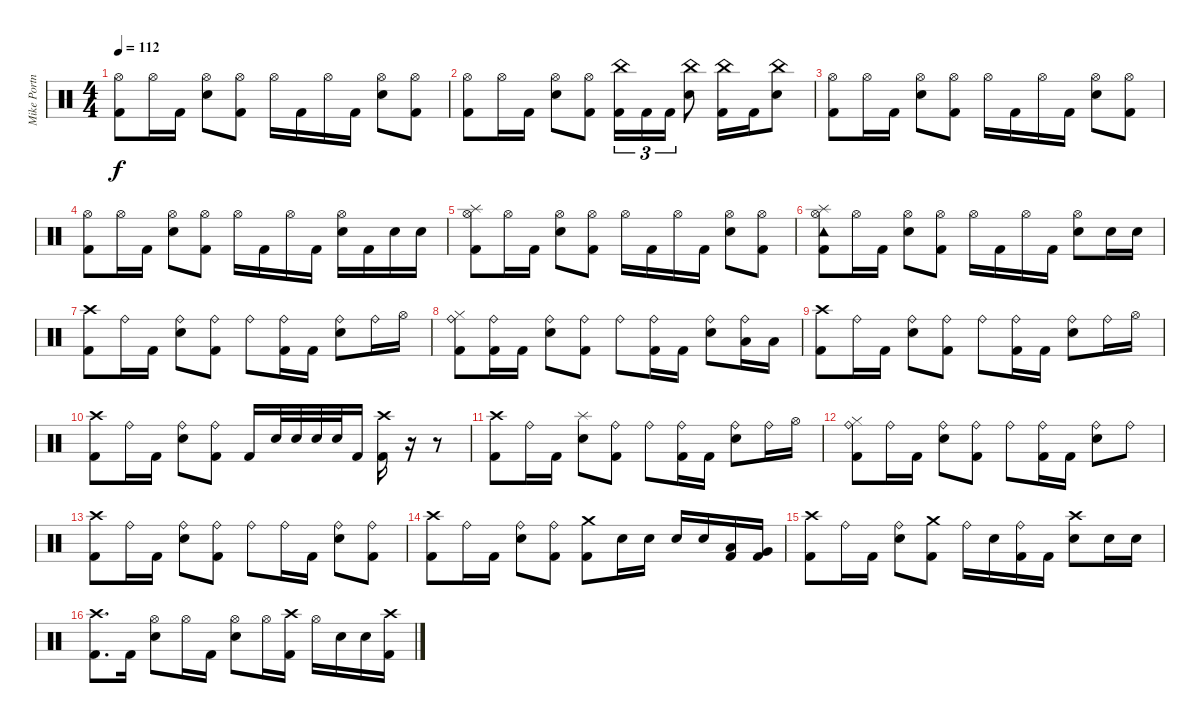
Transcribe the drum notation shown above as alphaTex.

\track ("Mike Portnoy" "Mike Portn") {instrument percussion}
\staff {score}
\articulation defaults
\ts (4 4)
\tempo 112
\clef neutral
\ks c
("Kick (hit) 2" "Hi-Hat (open)").8{dy f} "Hi-Hat (open)".16 "Kick (hit) 2".16 ("Electric Snare (hit)" "Hi-Hat (open)").8 ("Kick (hit) 2" "Hi-Hat (open)").8 "Hi-Hat (open)".16 "Kick (hit) 2".16 "Hi-Hat (open)".16 "Kick (hit) 2".16 ("Electric Snare (hit)" "Hi-Hat (open)").8 ("Kick (hit) 2" "Hi-Hat (open)").8 |
("Kick (hit) 2" "Hi-Hat (open)").8 "Hi-Hat (open)".16 "Kick (hit) 2".16 ("Electric Snare (hit)" "Hi-Hat (open)").8 ("Kick (hit) 2" "Hi-Hat (open)").8 ("Kick (hit) 2" "China (hit)").16{tu (3 2)} "Kick (hit) 2".16{tu (3 2)} "Kick (hit) 2".16{tu (3 2)} ("Electric Snare (hit)" "China (hit)").8 ("Kick (hit) 2" "China (hit)").16 "Kick (hit) 2".16 ("Electric Snare (hit)" "China (hit)").8 |
("Kick (hit) 2" "Hi-Hat (open)").8 "Hi-Hat (open)".16 "Kick (hit) 2".16 ("Electric Snare (hit)" "Hi-Hat (open)").8 ("Kick (hit) 2" "Hi-Hat (open)").8 "Hi-Hat (open)".16 "Kick (hit) 2".16 "Hi-Hat (open)".16 "Kick (hit) 2".16 ("Electric Snare (hit)" "Hi-Hat (open)").8 ("Kick (hit) 2" "Hi-Hat (open)").8 |
("Kick (hit) 2" "Hi-Hat (open)").8 "Hi-Hat (open)".16 "Kick (hit) 2".16 ("Electric Snare (hit)" "Hi-Hat (open)").8 ("Kick (hit) 2" "Hi-Hat (open)").8 "Hi-Hat (open)".16 "Kick (hit) 2".16 "Hi-Hat (open)".16 "Kick (hit) 2".16 ("Electric Snare (hit)" "Hi-Hat (open)").16 "Kick (hit) 2".16 "Electric Snare (hit)".16 "Electric Snare (hit)".16 |
("Kick (hit) 2" "Hi-Hat (open)" "Splash (hit)").8 "Hi-Hat (open)".16 "Kick (hit) 2".16 ("Electric Snare (hit)" "Hi-Hat (open)").8 ("Kick (hit) 2" "Hi-Hat (open)").8 "Hi-Hat (open)".16 "Kick (hit) 2".16 "Hi-Hat (open)".16 "Kick (hit) 2".16 ("Electric Snare (hit)" "Hi-Hat (open)").8 ("Kick (hit) 2" "Hi-Hat (open)").8 |
("Kick (hit) 2" "Hi-Hat (open)" "Tambourine (hit)" "Splash (hit)").8 "Hi-Hat (open)".16 "Kick (hit) 2".16 ("Electric Snare (hit)" "Hi-Hat (open)").8 ("Kick (hit) 2" "Hi-Hat (open)").8 "Hi-Hat (open)".16 "Kick (hit) 2".16 "Hi-Hat (open)".16 "Kick (hit) 2".16 ("Electric Snare (hit)" "Hi-Hat (open)").8 "Electric Snare (hit)".16 "Electric Snare (hit)".16 |
("Kick (hit) 2" "Crash high (hit)").8 "Ride (bell)".16 "Kick (hit) 2".16 ("Electric Snare (hit)" "Ride (bell)").8 ("Kick (hit) 2" "Ride (bell)").8 "Ride (bell)".8 ("Kick (hit) 2" "Ride (bell)").16 "Kick (hit) 2".16 ("Electric Snare (hit)" "Ride (bell)").8 "Ride (bell)".16 "Hi-Hat (open)".16 |
("Kick (hit) 2" "Hi-Hat (closed)" "Ride (bell)").8 ("Kick (hit) 2" "Ride (bell)").16 "Kick (hit) 2".16 ("Electric Snare (hit)" "Ride (bell)").8 ("Kick (hit) 2" "Ride (bell)").8 "Ride (bell)".8 ("Kick (hit) 2" "Ride (bell)").16 "Kick (hit) 2".16 ("Electric Snare (hit)" "Ride (bell)").8 ("Low Tom (hit)" "Ride (bell)").16 "Low Tom (hit)".16 |
("Kick (hit) 2" "Crash high (hit)").8 "Ride (bell)".16 "Kick (hit) 2".16 ("Electric Snare (hit)" "Ride (bell)").8 ("Kick (hit) 2" "Ride (bell)").8 "Ride (bell)".8 ("Kick (hit) 2" "Ride (bell)").16 "Kick (hit) 2".16 ("Electric Snare (hit)" "Ride (bell)").8 "Ride (bell)".16 "Hi-Hat (open)".16 |
("Kick (hit) 2" "Crash high (hit)").8 "Ride (bell)".16 "Kick (hit) 2".16 ("Electric Snare (hit)" "Ride (bell)").8 ("Kick (hit) 2" "Ride (bell)").8 "Kick (hit) 2".16 "Electric Snare (hit)".32 "Electric Snare (hit)".32 "Electric Snare (hit)".32 "Electric Snare (hit)".32 "Kick (hit) 2".16 ("Kick (hit) 2" "Crash high (hit)").16 r.16 r.8 |
("Kick (hit) 2" "Crash high (hit)").8 "Ride (bell)".16 "Kick (hit) 2".16 ("Electric Snare (hit)" "Splash (hit)").8 ("Kick (hit) 2" "Ride (bell)").8 "Ride (bell)".8 ("Kick (hit) 2" "Ride (bell)").16 "Kick (hit) 2".16 ("Electric Snare (hit)" "Ride (bell)").8 "Ride (bell)".16 "Hi-Hat (open)".16 |
("Kick (hit) 2" "Hi-Hat (closed)" "Ride (bell)").8 "Ride (bell)".16 "Kick (hit) 2".16 ("Electric Snare (hit)" "Ride (bell)").8 ("Kick (hit) 2" "Ride (bell)").8 "Ride (bell)".8 ("Kick (hit) 2" "Ride (bell)").16 "Kick (hit) 2".16 ("Electric Snare (hit)" "Ride (bell)").8 "Ride (bell)".8 |
("Kick (hit) 2" "Crash high (hit)").8 "Ride (bell)".16 "Kick (hit) 2".16 ("Electric Snare (hit)" "Ride (bell)").8 ("Kick (hit) 2" "Ride (bell)").8 "Ride (bell)".8 "Ride (bell)".16 "Kick (hit) 2".16 ("Electric Snare (hit)" "Ride (bell)").8 ("Kick (hit) 2" "Ride (bell)").8 |
("Kick (hit) 2" "Crash high (hit)").8 "Ride (bell)".16 "Kick (hit) 2".16 ("Electric Snare (hit)" "Ride (bell)").8 ("Kick (hit) 2" "Ride (bell)").8 ("Kick (hit) 2" "Crash medium (hit)").8 "Electric Snare (hit)".16 "Electric Snare (hit)".16 "Electric Snare (hit)".16 "Electric Snare (hit)".16 ("Kick (hit) 2" "Low Tom (hit)").16 ("Kick (hit) 2" "Very Low Tom (hit)").16 |
("Kick (hit) 2" "Crash high (hit)").8 "Ride (bell)".16 "Kick (hit) 2".16 ("Electric Snare (hit)" "Ride (bell)").8 ("Kick (hit) 2" "Crash medium (hit)").8 "Ride (bell)".16 "Electric Snare (hit)".16 ("Kick (hit) 2" "Ride (bell)").16 "Kick (hit) 2".16 ("Electric Snare (hit)" "Crash high (hit)").8 "Electric Snare (hit)".16 "Electric Snare (hit)".16 |
("Kick (hit) 2" "Crash high (hit)").8{d} "Kick (hit) 2".16 ("Electric Snare (hit)" "Hi-Hat (open)").8 "Hi-Hat (open)".16 "Kick (hit) 2".16 ("Electric Snare (hit)" "Hi-Hat (open)").8 "Hi-Hat (open)".16 ("Kick (hit) 2" "Crash high (hit)").16 "Hi-Hat (open)".16 "Electric Snare (hit)".16 "Electric Snare (hit)".16 ("Kick (hit) 2" "Crash high (hit)").16
